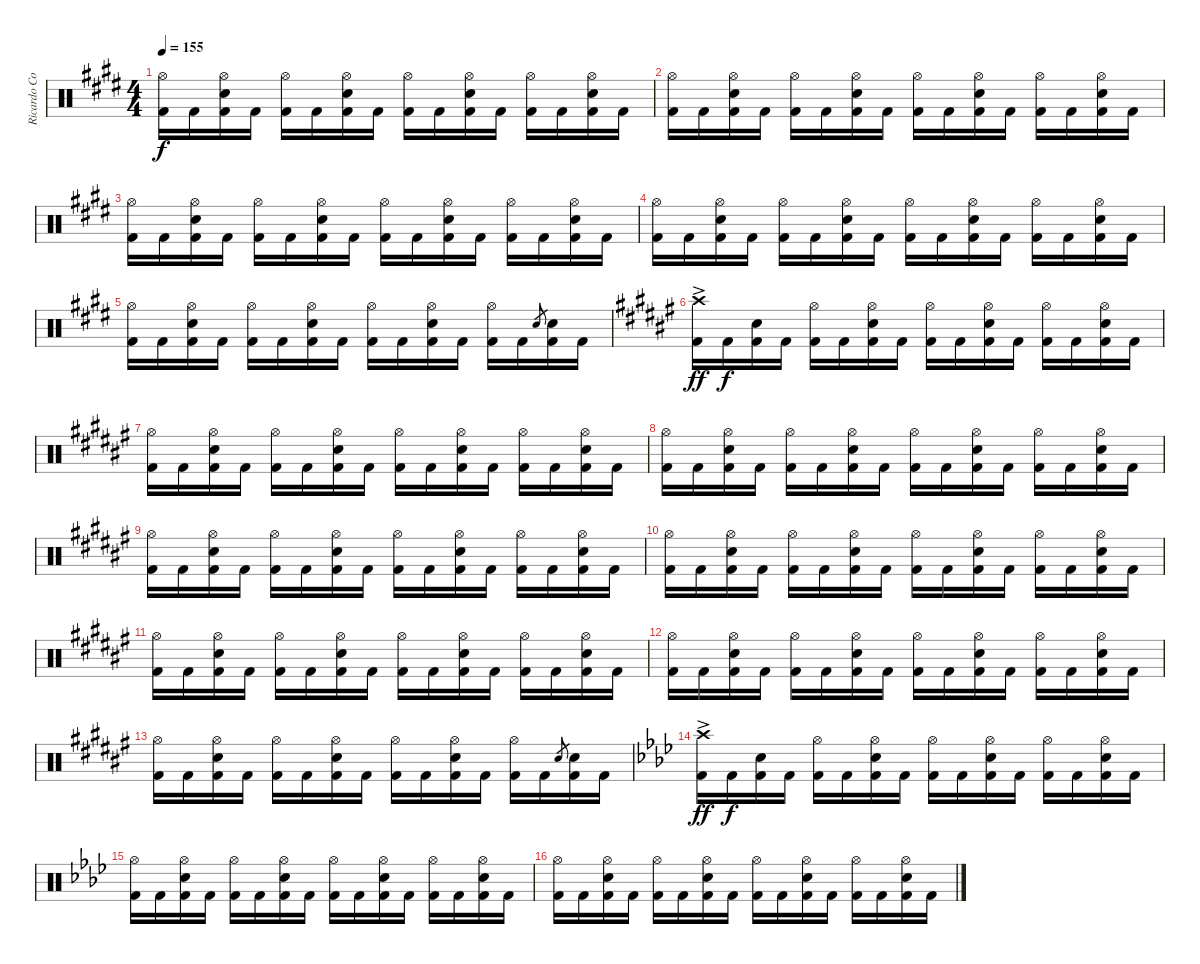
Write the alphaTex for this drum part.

\track ("Ricardo Confessori" "Ricardo Co") {instrument percussion}
\staff {score}
\articulation defaults
\ts (4 4)
\tempo 155
\clef neutral
\ks e
("Hi-Hat (open)" "Kick (hit) 2").16{dy f} "Kick (hit) 2".16 ("Electric Snare (hit)" "Kick (hit) 2" "Hi-Hat (open)").16 "Kick (hit) 2".16 ("Kick (hit) 2" "Hi-Hat (open)").16 "Kick (hit) 2".16 ("Kick (hit) 2" "Hi-Hat (open)" "Electric Snare (hit)").16 "Kick (hit) 2".16 ("Kick (hit) 2" "Hi-Hat (open)").16 "Kick (hit) 2".16 ("Kick (hit) 2" "Hi-Hat (open)" "Electric Snare (hit)").16 "Kick (hit) 2".16 ("Kick (hit) 2" "Hi-Hat (open)").16 "Kick (hit) 2".16 ("Kick (hit) 2" "Hi-Hat (open)" "Electric Snare (hit)").16 "Kick (hit) 2".16 |
("Hi-Hat (open)" "Kick (hit) 2").16 "Kick (hit) 2".16 ("Electric Snare (hit)" "Kick (hit) 2" "Hi-Hat (open)").16 "Kick (hit) 2".16 ("Kick (hit) 2" "Hi-Hat (open)").16 "Kick (hit) 2".16 ("Kick (hit) 2" "Hi-Hat (open)" "Electric Snare (hit)").16 "Kick (hit) 2".16 ("Kick (hit) 2" "Hi-Hat (open)").16 "Kick (hit) 2".16 ("Kick (hit) 2" "Hi-Hat (open)" "Electric Snare (hit)").16 "Kick (hit) 2".16 ("Kick (hit) 2" "Hi-Hat (open)").16 "Kick (hit) 2".16 ("Kick (hit) 2" "Hi-Hat (open)" "Electric Snare (hit)").16 "Kick (hit) 2".16 |
("Hi-Hat (open)" "Kick (hit) 2").16 "Kick (hit) 2".16 ("Electric Snare (hit)" "Kick (hit) 2" "Hi-Hat (open)").16 "Kick (hit) 2".16 ("Kick (hit) 2" "Hi-Hat (open)").16 "Kick (hit) 2".16 ("Kick (hit) 2" "Hi-Hat (open)" "Electric Snare (hit)").16 "Kick (hit) 2".16 ("Kick (hit) 2" "Hi-Hat (open)").16 "Kick (hit) 2".16 ("Kick (hit) 2" "Hi-Hat (open)" "Electric Snare (hit)").16 "Kick (hit) 2".16 ("Kick (hit) 2" "Hi-Hat (open)").16 "Kick (hit) 2".16 ("Kick (hit) 2" "Hi-Hat (open)" "Electric Snare (hit)").16 "Kick (hit) 2".16 |
("Hi-Hat (open)" "Kick (hit) 2").16 "Kick (hit) 2".16 ("Electric Snare (hit)" "Kick (hit) 2" "Hi-Hat (open)").16 "Kick (hit) 2".16 ("Kick (hit) 2" "Hi-Hat (open)").16 "Kick (hit) 2".16 ("Kick (hit) 2" "Hi-Hat (open)" "Electric Snare (hit)").16 "Kick (hit) 2".16 ("Kick (hit) 2" "Hi-Hat (open)").16 "Kick (hit) 2".16 ("Kick (hit) 2" "Hi-Hat (open)" "Electric Snare (hit)").16 "Kick (hit) 2".16 ("Kick (hit) 2" "Hi-Hat (open)").16 "Kick (hit) 2".16 ("Kick (hit) 2" "Hi-Hat (open)" "Electric Snare (hit)").16 "Kick (hit) 2".16 |
("Hi-Hat (open)" "Kick (hit) 2").16 "Kick (hit) 2".16 ("Electric Snare (hit)" "Kick (hit) 2" "Hi-Hat (open)").16 "Kick (hit) 2".16 ("Kick (hit) 2" "Hi-Hat (open)").16 "Kick (hit) 2".16 ("Kick (hit) 2" "Hi-Hat (open)" "Electric Snare (hit)").16 "Kick (hit) 2".16 ("Kick (hit) 2" "Hi-Hat (open)").16 "Kick (hit) 2".16 ("Kick (hit) 2" "Hi-Hat (open)" "Electric Snare (hit)").16 "Kick (hit) 2".16 ("Kick (hit) 2" "Hi-Hat (open)").16 "Kick (hit) 2".16 "Electric Snare (hit)".8{gr} ("Kick (hit) 2" "Electric Snare (hit)").16 "Kick (hit) 2".16 |
\ks f#
("Crash high (hit)"{ac} "Kick (hit) 2"{ac}).16{dy ff} "Kick (hit) 2".16{dy f} ("Electric Snare (hit)" "Kick (hit) 2").16 "Kick (hit) 2".16 ("Kick (hit) 2" "Hi-Hat (open)").16 "Kick (hit) 2".16 ("Kick (hit) 2" "Hi-Hat (open)" "Electric Snare (hit)").16 "Kick (hit) 2".16 ("Kick (hit) 2" "Hi-Hat (open)").16 "Kick (hit) 2".16 ("Kick (hit) 2" "Hi-Hat (open)" "Electric Snare (hit)").16 "Kick (hit) 2".16 ("Kick (hit) 2" "Hi-Hat (open)").16 "Kick (hit) 2".16 ("Kick (hit) 2" "Hi-Hat (open)" "Electric Snare (hit)").16 "Kick (hit) 2".16 |
("Hi-Hat (open)" "Kick (hit) 2").16 "Kick (hit) 2".16 ("Electric Snare (hit)" "Kick (hit) 2" "Hi-Hat (open)").16 "Kick (hit) 2".16 ("Kick (hit) 2" "Hi-Hat (open)").16 "Kick (hit) 2".16 ("Kick (hit) 2" "Hi-Hat (open)" "Electric Snare (hit)").16 "Kick (hit) 2".16 ("Kick (hit) 2" "Hi-Hat (open)").16 "Kick (hit) 2".16 ("Kick (hit) 2" "Hi-Hat (open)" "Electric Snare (hit)").16 "Kick (hit) 2".16 ("Kick (hit) 2" "Hi-Hat (open)").16 "Kick (hit) 2".16 ("Kick (hit) 2" "Hi-Hat (open)" "Electric Snare (hit)").16 "Kick (hit) 2".16 |
("Hi-Hat (open)" "Kick (hit) 2").16 "Kick (hit) 2".16 ("Electric Snare (hit)" "Kick (hit) 2" "Hi-Hat (open)").16 "Kick (hit) 2".16 ("Kick (hit) 2" "Hi-Hat (open)").16 "Kick (hit) 2".16 ("Kick (hit) 2" "Hi-Hat (open)" "Electric Snare (hit)").16 "Kick (hit) 2".16 ("Kick (hit) 2" "Hi-Hat (open)").16 "Kick (hit) 2".16 ("Kick (hit) 2" "Hi-Hat (open)" "Electric Snare (hit)").16 "Kick (hit) 2".16 ("Kick (hit) 2" "Hi-Hat (open)").16 "Kick (hit) 2".16 ("Kick (hit) 2" "Hi-Hat (open)" "Electric Snare (hit)").16 "Kick (hit) 2".16 |
("Hi-Hat (open)" "Kick (hit) 2").16 "Kick (hit) 2".16 ("Electric Snare (hit)" "Kick (hit) 2" "Hi-Hat (open)").16 "Kick (hit) 2".16 ("Kick (hit) 2" "Hi-Hat (open)").16 "Kick (hit) 2".16 ("Kick (hit) 2" "Hi-Hat (open)" "Electric Snare (hit)").16 "Kick (hit) 2".16 ("Kick (hit) 2" "Hi-Hat (open)").16 "Kick (hit) 2".16 ("Kick (hit) 2" "Hi-Hat (open)" "Electric Snare (hit)").16 "Kick (hit) 2".16 ("Kick (hit) 2" "Hi-Hat (open)").16 "Kick (hit) 2".16 ("Kick (hit) 2" "Hi-Hat (open)" "Electric Snare (hit)").16 "Kick (hit) 2".16 |
("Hi-Hat (open)" "Kick (hit) 2").16 "Kick (hit) 2".16 ("Electric Snare (hit)" "Kick (hit) 2" "Hi-Hat (open)").16 "Kick (hit) 2".16 ("Kick (hit) 2" "Hi-Hat (open)").16 "Kick (hit) 2".16 ("Kick (hit) 2" "Hi-Hat (open)" "Electric Snare (hit)").16 "Kick (hit) 2".16 ("Kick (hit) 2" "Hi-Hat (open)").16 "Kick (hit) 2".16 ("Kick (hit) 2" "Hi-Hat (open)" "Electric Snare (hit)").16 "Kick (hit) 2".16 ("Kick (hit) 2" "Hi-Hat (open)").16 "Kick (hit) 2".16 ("Kick (hit) 2" "Hi-Hat (open)" "Electric Snare (hit)").16 "Kick (hit) 2".16 |
("Hi-Hat (open)" "Kick (hit) 2").16 "Kick (hit) 2".16 ("Electric Snare (hit)" "Kick (hit) 2" "Hi-Hat (open)").16 "Kick (hit) 2".16 ("Kick (hit) 2" "Hi-Hat (open)").16 "Kick (hit) 2".16 ("Kick (hit) 2" "Hi-Hat (open)" "Electric Snare (hit)").16 "Kick (hit) 2".16 ("Kick (hit) 2" "Hi-Hat (open)").16 "Kick (hit) 2".16 ("Kick (hit) 2" "Hi-Hat (open)" "Electric Snare (hit)").16 "Kick (hit) 2".16 ("Kick (hit) 2" "Hi-Hat (open)").16 "Kick (hit) 2".16 ("Kick (hit) 2" "Hi-Hat (open)" "Electric Snare (hit)").16 "Kick (hit) 2".16 |
("Hi-Hat (open)" "Kick (hit) 2").16 "Kick (hit) 2".16 ("Electric Snare (hit)" "Kick (hit) 2" "Hi-Hat (open)").16 "Kick (hit) 2".16 ("Kick (hit) 2" "Hi-Hat (open)").16 "Kick (hit) 2".16 ("Kick (hit) 2" "Hi-Hat (open)" "Electric Snare (hit)").16 "Kick (hit) 2".16 ("Kick (hit) 2" "Hi-Hat (open)").16 "Kick (hit) 2".16 ("Kick (hit) 2" "Hi-Hat (open)" "Electric Snare (hit)").16 "Kick (hit) 2".16 ("Kick (hit) 2" "Hi-Hat (open)").16 "Kick (hit) 2".16 ("Kick (hit) 2" "Hi-Hat (open)" "Electric Snare (hit)").16 "Kick (hit) 2".16 |
("Hi-Hat (open)" "Kick (hit) 2").16 "Kick (hit) 2".16 ("Electric Snare (hit)" "Kick (hit) 2" "Hi-Hat (open)").16 "Kick (hit) 2".16 ("Kick (hit) 2" "Hi-Hat (open)").16 "Kick (hit) 2".16 ("Kick (hit) 2" "Hi-Hat (open)" "Electric Snare (hit)").16 "Kick (hit) 2".16 ("Kick (hit) 2" "Hi-Hat (open)").16 "Kick (hit) 2".16 ("Kick (hit) 2" "Hi-Hat (open)" "Electric Snare (hit)").16 "Kick (hit) 2".16 ("Kick (hit) 2" "Hi-Hat (open)").16 "Kick (hit) 2".16 "Electric Snare (hit)".8{gr} ("Kick (hit) 2" "Electric Snare (hit)").16 "Kick (hit) 2".16 |
\ks ab
("Crash high (hit)"{ac} "Kick (hit) 2"{ac}).16{dy ff} "Kick (hit) 2".16{dy f} ("Electric Snare (hit)" "Kick (hit) 2").16 "Kick (hit) 2".16 ("Kick (hit) 2" "Hi-Hat (open)").16 "Kick (hit) 2".16 ("Kick (hit) 2" "Hi-Hat (open)" "Electric Snare (hit)").16 "Kick (hit) 2".16 ("Kick (hit) 2" "Hi-Hat (open)").16 "Kick (hit) 2".16 ("Kick (hit) 2" "Hi-Hat (open)" "Electric Snare (hit)").16 "Kick (hit) 2".16 ("Kick (hit) 2" "Hi-Hat (open)").16 "Kick (hit) 2".16 ("Kick (hit) 2" "Hi-Hat (open)" "Electric Snare (hit)").16 "Kick (hit) 2".16 |
("Hi-Hat (open)" "Kick (hit) 2").16 "Kick (hit) 2".16 ("Electric Snare (hit)" "Kick (hit) 2" "Hi-Hat (open)").16 "Kick (hit) 2".16 ("Kick (hit) 2" "Hi-Hat (open)").16 "Kick (hit) 2".16 ("Kick (hit) 2" "Hi-Hat (open)" "Electric Snare (hit)").16 "Kick (hit) 2".16 ("Kick (hit) 2" "Hi-Hat (open)").16 "Kick (hit) 2".16 ("Kick (hit) 2" "Hi-Hat (open)" "Electric Snare (hit)").16 "Kick (hit) 2".16 ("Kick (hit) 2" "Hi-Hat (open)").16 "Kick (hit) 2".16 ("Kick (hit) 2" "Hi-Hat (open)" "Electric Snare (hit)").16 "Kick (hit) 2".16 |
("Hi-Hat (open)" "Kick (hit) 2").16 "Kick (hit) 2".16 ("Electric Snare (hit)" "Kick (hit) 2" "Hi-Hat (open)").16 "Kick (hit) 2".16 ("Kick (hit) 2" "Hi-Hat (open)").16 "Kick (hit) 2".16 ("Kick (hit) 2" "Hi-Hat (open)" "Electric Snare (hit)").16 "Kick (hit) 2".16 ("Kick (hit) 2" "Hi-Hat (open)").16 "Kick (hit) 2".16 ("Kick (hit) 2" "Hi-Hat (open)" "Electric Snare (hit)").16 "Kick (hit) 2".16 ("Kick (hit) 2" "Hi-Hat (open)").16 "Kick (hit) 2".16 ("Kick (hit) 2" "Hi-Hat (open)" "Electric Snare (hit)").16 "Kick (hit) 2".16
